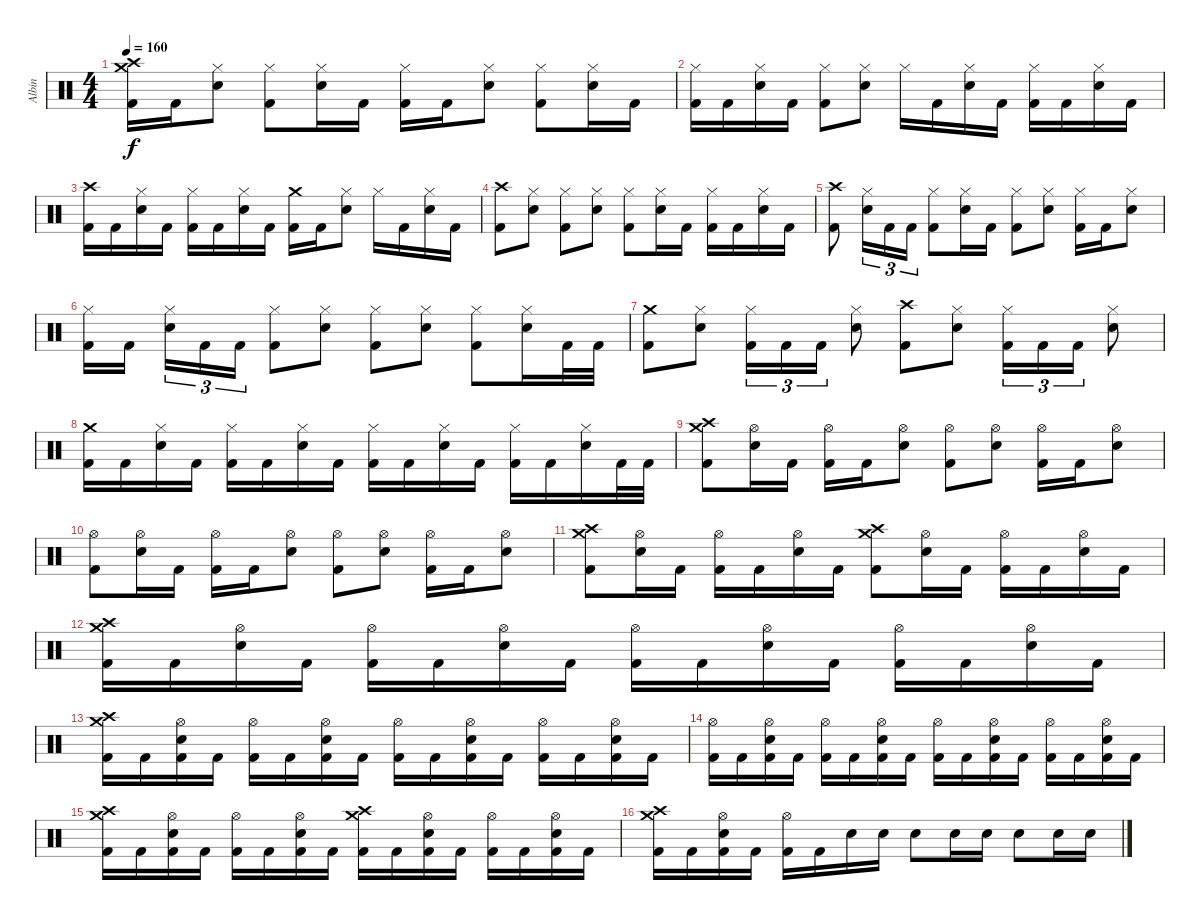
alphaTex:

\track ("Albin" "Albin") {instrument percussion}
\staff {score}
\articulation defaults
\ts (4 4)
\tempo 160
\clef neutral
\ks c
("Kick (hit) 2" "Crash high (hit)" "Crash medium (hit)").16{dy f} "Kick (hit) 2".16 ("Electric Snare (hit)" "Hi-Hat (closed)").8 ("Kick (hit) 2" "Hi-Hat (closed)").8 ("Electric Snare (hit)" "Hi-Hat (closed)").16 "Kick (hit) 2".16 ("Kick (hit) 2" "Hi-Hat (closed)").16 "Kick (hit) 2".16 ("Electric Snare (hit)" "Hi-Hat (closed)").8 ("Kick (hit) 2" "Hi-Hat (closed)").8 ("Electric Snare (hit)" "Hi-Hat (closed)").16 "Kick (hit) 2".16 |
("Kick (hit) 2" "Hi-Hat (closed)").16 "Kick (hit) 2".16 ("Electric Snare (hit)" "Hi-Hat (closed)").16 "Kick (hit) 2".16 ("Kick (hit) 2" "Hi-Hat (closed)").8 ("Electric Snare (hit)" "Hi-Hat (closed)").8 "Hi-Hat (closed)".16 "Kick (hit) 2".16 ("Electric Snare (hit)" "Hi-Hat (closed)").16 "Kick (hit) 2".16 ("Kick (hit) 2" "Hi-Hat (closed)").16 "Kick (hit) 2".16 ("Electric Snare (hit)" "Hi-Hat (closed)").16 "Kick (hit) 2".16 |
("Kick (hit) 2" "Crash high (hit)").16 "Kick (hit) 2".16 ("Electric Snare (hit)" "Hi-Hat (closed)").16 "Kick (hit) 2".16 ("Kick (hit) 2" "Hi-Hat (closed)").16 "Kick (hit) 2".16 ("Electric Snare (hit)" "Hi-Hat (closed)").16 "Kick (hit) 2".16 ("Kick (hit) 2" "Crash medium (hit)").16 "Kick (hit) 2".16 ("Electric Snare (hit)" "Hi-Hat (closed)").8 "Hi-Hat (closed)".16 "Kick (hit) 2".16 ("Electric Snare (hit)" "Hi-Hat (closed)").16 "Kick (hit) 2".16 |
("Kick (hit) 2" "Crash high (hit)").8 ("Electric Snare (hit)" "Hi-Hat (closed)").8 ("Kick (hit) 2" "Hi-Hat (closed)").8 ("Electric Snare (hit)" "Hi-Hat (closed)").8 ("Kick (hit) 2" "Hi-Hat (closed)").8 ("Electric Snare (hit)" "Hi-Hat (closed)").16 "Kick (hit) 2".16 ("Kick (hit) 2" "Hi-Hat (closed)").16 "Kick (hit) 2".16 ("Electric Snare (hit)" "Hi-Hat (closed)").16 "Kick (hit) 2".16 |
("Kick (hit) 2" "Crash high (hit)").8 ("Electric Snare (hit)" "Hi-Hat (closed)").16{tu (3 2)} "Kick (hit) 2".16{tu (3 2)} "Kick (hit) 2".16{tu (3 2)} ("Kick (hit) 2" "Hi-Hat (closed)").8 ("Electric Snare (hit)" "Hi-Hat (closed)").16 "Kick (hit) 2".16 ("Kick (hit) 2" "Hi-Hat (closed)").8 ("Electric Snare (hit)" "Hi-Hat (closed)").8 ("Kick (hit) 2" "Hi-Hat (closed)").16 "Kick (hit) 2".16 ("Electric Snare (hit)" "Hi-Hat (closed)").8 |
("Kick (hit) 2" "Hi-Hat (closed)").16 "Kick (hit) 2".16 ("Electric Snare (hit)" "Hi-Hat (closed)").16{tu (3 2)} "Kick (hit) 2".16{tu (3 2)} "Kick (hit) 2".16{tu (3 2)} ("Kick (hit) 2" "Hi-Hat (closed)").8 ("Electric Snare (hit)" "Hi-Hat (closed)").8 ("Kick (hit) 2" "Hi-Hat (closed)").8 ("Electric Snare (hit)" "Hi-Hat (closed)").8 ("Kick (hit) 2" "Hi-Hat (closed)").8 ("Electric Snare (hit)" "Hi-Hat (closed)").16 "Kick (hit) 2".32 "Kick (hit) 2".32 |
("Kick (hit) 2" "Crash medium (hit)").8 ("Electric Snare (hit)" "Hi-Hat (closed)").8 ("Kick (hit) 2" "Hi-Hat (closed)").16{tu (3 2)} "Kick (hit) 2".16{tu (3 2)} "Kick (hit) 2".16{tu (3 2)} ("Electric Snare (hit)" "Hi-Hat (closed)").8 ("Kick (hit) 2" "Crash high (hit)").8 ("Electric Snare (hit)" "Hi-Hat (closed)").8 ("Kick (hit) 2" "Hi-Hat (closed)").16{tu (3 2)} "Kick (hit) 2".16{tu (3 2)} "Kick (hit) 2".16{tu (3 2)} ("Electric Snare (hit)" "Hi-Hat (closed)").8 |
("Kick (hit) 2" "Crash medium (hit)").16 "Kick (hit) 2".16 ("Electric Snare (hit)" "Hi-Hat (closed)").16 "Kick (hit) 2".16 ("Kick (hit) 2" "Hi-Hat (closed)").16 "Kick (hit) 2".16 ("Electric Snare (hit)" "Hi-Hat (closed)").16 "Kick (hit) 2".16 ("Kick (hit) 2" "Hi-Hat (closed)").16 "Kick (hit) 2".16 ("Electric Snare (hit)" "Hi-Hat (closed)").16 "Kick (hit) 2".16 ("Kick (hit) 2" "Hi-Hat (closed)").16 "Kick (hit) 2".16 ("Electric Snare (hit)" "Hi-Hat (closed)").16 "Kick (hit) 2".32 "Kick (hit) 2".32 |
("Kick (hit) 2" "Crash high (hit)" "Crash medium (hit)").8 ("Electric Snare (hit)" "Hi-Hat (open)").16 "Kick (hit) 2".16 ("Kick (hit) 2" "Hi-Hat (open)").16 "Kick (hit) 2".16 ("Electric Snare (hit)" "Hi-Hat (open)").8 ("Kick (hit) 2" "Hi-Hat (open)").8 ("Electric Snare (hit)" "Hi-Hat (open)").8 ("Kick (hit) 2" "Hi-Hat (open)").16 "Kick (hit) 2".16 ("Electric Snare (hit)" "Hi-Hat (open)").8 |
("Kick (hit) 2" "Hi-Hat (open)").8 ("Electric Snare (hit)" "Hi-Hat (open)").16 "Kick (hit) 2".16 ("Kick (hit) 2" "Hi-Hat (open)").16 "Kick (hit) 2".16 ("Electric Snare (hit)" "Hi-Hat (open)").8 ("Kick (hit) 2" "Hi-Hat (open)").8 ("Electric Snare (hit)" "Hi-Hat (open)").8 ("Kick (hit) 2" "Hi-Hat (open)").16 "Kick (hit) 2".16 ("Electric Snare (hit)" "Hi-Hat (open)").8 |
("Kick (hit) 2" "Crash medium (hit)" "Crash high (hit)").8 ("Electric Snare (hit)" "Hi-Hat (open)").16 "Kick (hit) 2".16 ("Kick (hit) 2" "Hi-Hat (open)").16 "Kick (hit) 2".16 ("Electric Snare (hit)" "Hi-Hat (open)").16 "Kick (hit) 2".16 ("Kick (hit) 2" "Crash high (hit)" "Crash medium (hit)").8 ("Electric Snare (hit)" "Hi-Hat (open)").16 "Kick (hit) 2".16 ("Kick (hit) 2" "Hi-Hat (open)").16 "Kick (hit) 2".16 ("Electric Snare (hit)" "Hi-Hat (open)").16 "Kick (hit) 2".16 |
("Kick (hit) 2" "Crash high (hit)" "Crash medium (hit)").16 "Kick (hit) 2".16 ("Electric Snare (hit)" "Hi-Hat (open)").16 "Kick (hit) 2".16 ("Kick (hit) 2" "Hi-Hat (open)").16 "Kick (hit) 2".16 ("Electric Snare (hit)" "Hi-Hat (open)").16 "Kick (hit) 2".16 ("Kick (hit) 2" "Hi-Hat (open)").16 "Kick (hit) 2".16 ("Electric Snare (hit)" "Hi-Hat (open)").16 "Kick (hit) 2".16 ("Kick (hit) 2" "Hi-Hat (open)").16 "Kick (hit) 2".16 ("Electric Snare (hit)" "Hi-Hat (open)").16 "Kick (hit) 2".16 |
("Kick (hit) 2" "Crash medium (hit)" "Crash high (hit)").16 "Kick (hit) 2".16 ("Kick (hit) 2" "Electric Snare (hit)" "Hi-Hat (open)").16 "Kick (hit) 2".16 ("Kick (hit) 2" "Hi-Hat (open)").16 "Kick (hit) 2".16 ("Kick (hit) 2" "Electric Snare (hit)" "Hi-Hat (open)").16 "Kick (hit) 2".16 ("Kick (hit) 2" "Hi-Hat (open)").16 "Kick (hit) 2".16 ("Kick (hit) 2" "Electric Snare (hit)" "Hi-Hat (open)").16 "Kick (hit) 2".16 ("Kick (hit) 2" "Hi-Hat (open)").16 "Kick (hit) 2".16 ("Kick (hit) 2" "Electric Snare (hit)" "Hi-Hat (open)").16 "Kick (hit) 2".16 |
("Kick (hit) 2" "Hi-Hat (open)").16 "Kick (hit) 2".16 ("Kick (hit) 2" "Electric Snare (hit)" "Hi-Hat (open)").16 "Kick (hit) 2".16 ("Kick (hit) 2" "Hi-Hat (open)").16 "Kick (hit) 2".16 ("Kick (hit) 2" "Electric Snare (hit)" "Hi-Hat (open)").16 "Kick (hit) 2".16 ("Kick (hit) 2" "Hi-Hat (open)").16 "Kick (hit) 2".16 ("Kick (hit) 2" "Electric Snare (hit)" "Hi-Hat (open)").16 "Kick (hit) 2".16 ("Kick (hit) 2" "Hi-Hat (open)").16 "Kick (hit) 2".16 ("Kick (hit) 2" "Electric Snare (hit)" "Hi-Hat (open)").16 "Kick (hit) 2".16 |
("Kick (hit) 2" "Crash high (hit)" "Crash medium (hit)").16 "Kick (hit) 2".16 ("Kick (hit) 2" "Electric Snare (hit)" "Hi-Hat (open)").16 "Kick (hit) 2".16 ("Kick (hit) 2" "Hi-Hat (open)").16 "Kick (hit) 2".16 ("Kick (hit) 2" "Electric Snare (hit)" "Hi-Hat (open)").16 "Kick (hit) 2".16 ("Kick (hit) 2" "Crash medium (hit)" "Crash high (hit)").16 "Kick (hit) 2".16 ("Kick (hit) 2" "Electric Snare (hit)" "Hi-Hat (open)").16 "Kick (hit) 2".16 ("Kick (hit) 2" "Hi-Hat (open)").16 "Kick (hit) 2".16 ("Kick (hit) 2" "Electric Snare (hit)" "Hi-Hat (open)").16 "Kick (hit) 2".16 |
("Kick (hit) 2" "Crash high (hit)" "Crash medium (hit)").16 "Kick (hit) 2".16 ("Kick (hit) 2" "Electric Snare (hit)" "Hi-Hat (open)").16 "Kick (hit) 2".16 ("Kick (hit) 2" "Hi-Hat (open)").16 "Kick (hit) 2".16 "Electric Snare (hit)".16 "Electric Snare (hit)".16 "Electric Snare (hit)".8 "Electric Snare (hit)".16 "Electric Snare (hit)".16 "Electric Snare (hit)".8 "Electric Snare (hit)".16 "Electric Snare (hit)".16
